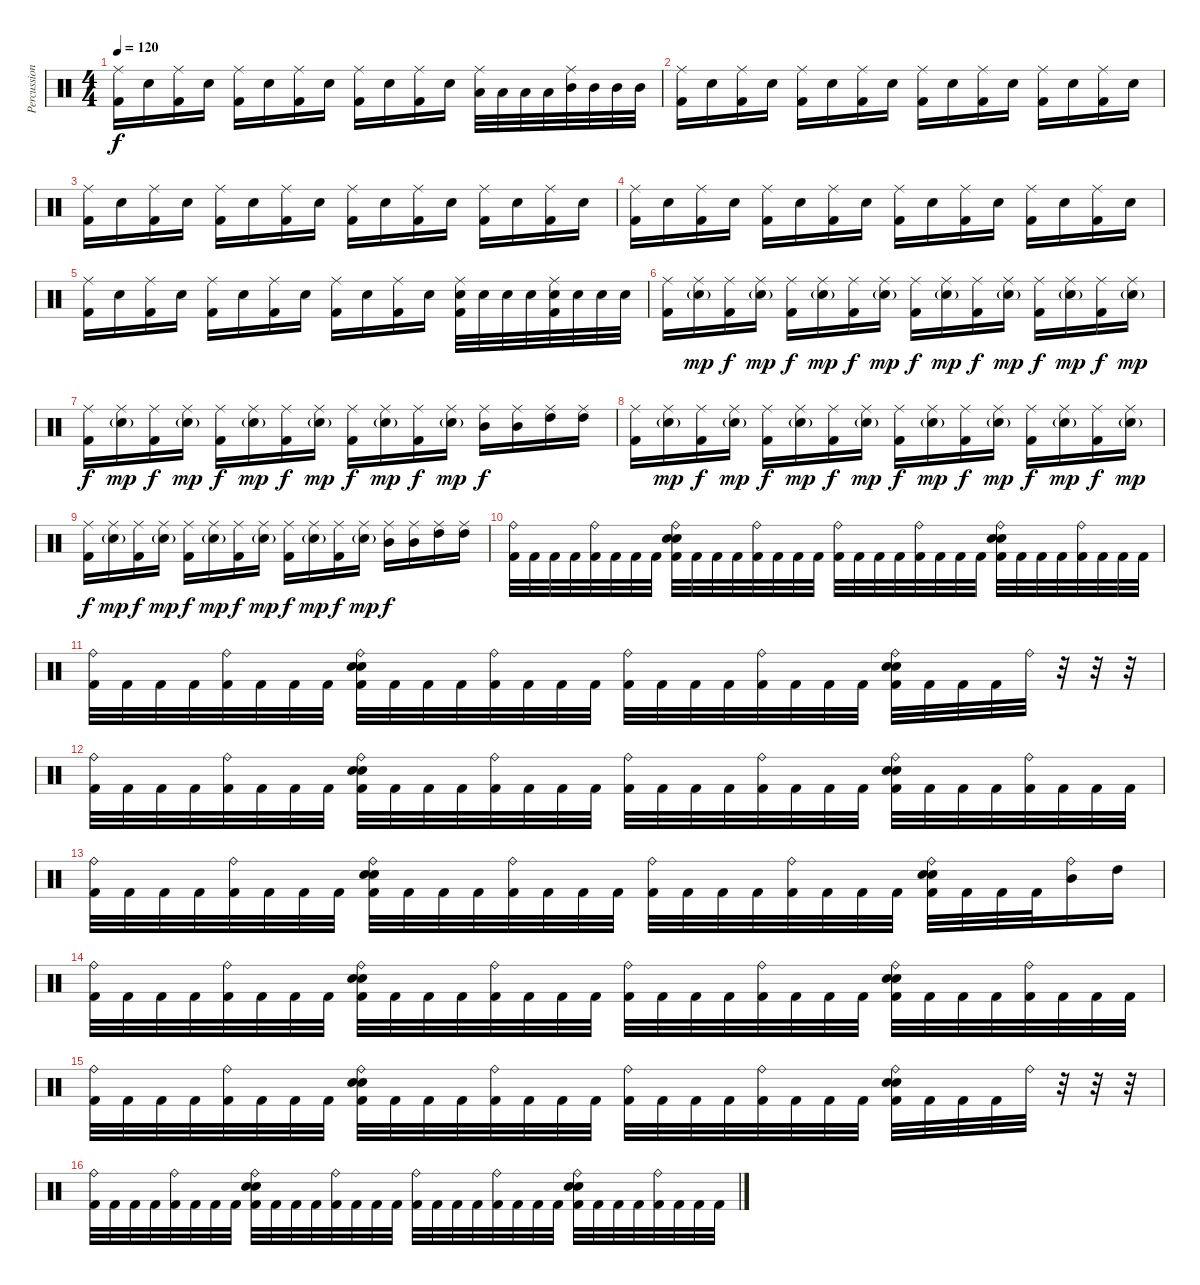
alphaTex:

\track ("Percussion" "Percussion") {instrument percussion}
\staff {score}
\articulation defaults
\ts (4 4)
\tempo 120
\clef neutral
\ks c
("Ride (middle)" "Kick (hit) 2").16{dy f} "Snare (hit) 2".16 ("Ride (middle)" "Kick (hit) 2").16 "Snare (hit) 2".16 ("Ride (middle)" "Kick (hit) 2").16 "Snare (hit) 2".16 ("Ride (middle)" "Kick (hit) 2").16 "Snare (hit) 2".16 ("Ride (middle)" "Kick (hit) 2").16 "Snare (hit) 2".16 ("Ride (middle)" "Kick (hit) 2").16 "Snare (hit) 2".16 ("Ride (middle)" "Low Tom (hit)").32 "Low Tom (hit)".32 "Low Tom (hit)".32 "Low Tom (hit)".32 ("Ride (middle)" "Mid Tom (hit)").32 "Mid Tom (hit)".32 "Mid Tom (hit)".32 "Mid Tom (hit)".32 |
("Ride (middle)" "Kick (hit) 2").16 "Snare (hit) 2".16 ("Ride (middle)" "Kick (hit) 2").16 "Snare (hit) 2".16 ("Ride (middle)" "Kick (hit) 2").16 "Snare (hit) 2".16 ("Ride (middle)" "Kick (hit) 2").16 "Snare (hit) 2".16 ("Ride (middle)" "Kick (hit) 2").16 "Snare (hit) 2".16 ("Ride (middle)" "Kick (hit) 2").16 "Snare (hit) 2".16 ("Ride (middle)" "Kick (hit) 2").16 "Snare (hit) 2".16 ("Ride (middle)" "Kick (hit) 2").16 "Snare (hit) 2".16 |
("Ride (middle)" "Kick (hit) 2").16 "Snare (hit) 2".16 ("Ride (middle)" "Kick (hit) 2").16 "Snare (hit) 2".16 ("Ride (middle)" "Kick (hit) 2").16 "Snare (hit) 2".16 ("Ride (middle)" "Kick (hit) 2").16 "Snare (hit) 2".16 ("Ride (middle)" "Kick (hit) 2").16 "Snare (hit) 2".16 ("Ride (middle)" "Kick (hit) 2").16 "Snare (hit) 2".16 ("Ride (middle)" "Kick (hit) 2").16 "Snare (hit) 2".16 ("Ride (middle)" "Kick (hit) 2").16 "Snare (hit) 2".16 |
("Ride (middle)" "Kick (hit) 2").16 "Snare (hit) 2".16 ("Ride (middle)" "Kick (hit) 2").16 "Snare (hit) 2".16 ("Ride (middle)" "Kick (hit) 2").16 "Snare (hit) 2".16 ("Ride (middle)" "Kick (hit) 2").16 "Snare (hit) 2".16 ("Ride (middle)" "Kick (hit) 2").16 "Snare (hit) 2".16 ("Ride (middle)" "Kick (hit) 2").16 "Snare (hit) 2".16 ("Ride (middle)" "Kick (hit) 2").16 "Snare (hit) 2".16 ("Ride (middle)" "Kick (hit) 2").16 "Snare (hit) 2".16 |
("Ride (middle)" "Kick (hit) 2").16 "Snare (hit) 2".16 ("Ride (middle)" "Kick (hit) 2").16 "Snare (hit) 2".16 ("Ride (middle)" "Kick (hit) 2").16 "Snare (hit) 2".16 ("Ride (middle)" "Kick (hit) 2").16 "Snare (hit) 2".16 ("Ride (middle)" "Kick (hit) 2").16 "Snare (hit) 2".16 ("Ride (middle)" "Kick (hit) 2").16 "Snare (hit) 2".16 ("Ride (middle)" "Snare (hit) 2" "Kick (hit) 2").32 "Snare (hit) 2".32 "Snare (hit) 2".32 "Snare (hit) 2".32 ("Ride (middle)" "Snare (hit) 2" "Kick (hit) 2").32 "Snare (hit) 2".32 "Snare (hit) 2".32 "Snare (hit) 2".32 |
("Ride (middle)" "Kick (hit) 2").16 ("Ride (middle)" "Snare (hit) 2"{g}).16{dy mp} ("Ride (middle)" "Kick (hit) 2").16{dy f} ("Ride (middle)" "Snare (hit) 2"{g}).16{dy mp} ("Ride (middle)" "Kick (hit) 2").16{dy f} ("Ride (middle)" "Snare (hit) 2"{g}).16{dy mp} ("Ride (middle)" "Kick (hit) 2").16{dy f} ("Ride (middle)" "Snare (hit) 2"{g}).16{dy mp} ("Ride (middle)" "Kick (hit) 2").16{dy f} ("Ride (middle)" "Snare (hit) 2"{g}).16{dy mp} ("Ride (middle)" "Kick (hit) 2").16{dy f} ("Ride (middle)" "Snare (hit) 2"{g}).16{dy mp} ("Ride (middle)" "Kick (hit) 2").16{dy f} ("Ride (middle)" "Snare (hit) 2"{g}).16{dy mp} ("Ride (middle)" "Kick (hit) 2").16{dy f} ("Ride (middle)" "Snare (hit) 2"{g}).16{dy mp} |
("Ride (middle)" "Kick (hit) 2").16{dy f} ("Ride (middle)" "Snare (hit) 2"{g}).16{dy mp} ("Ride (middle)" "Kick (hit) 2").16{dy f} ("Ride (middle)" "Snare (hit) 2"{g}).16{dy mp} ("Ride (middle)" "Kick (hit) 2").16{dy f} ("Ride (middle)" "Snare (hit) 2"{g}).16{dy mp} ("Ride (middle)" "Kick (hit) 2").16{dy f} ("Ride (middle)" "Snare (hit) 2"{g}).16{dy mp} ("Ride (middle)" "Kick (hit) 2").16{dy f} ("Ride (middle)" "Snare (hit) 2"{g}).16{dy mp} ("Ride (middle)" "Kick (hit) 2").16{dy f} ("Ride (middle)" "Snare (hit) 2"{g}).16{dy mp} ("Ride (middle)" "Mid Tom (hit)").16{dy f} ("Ride (middle)" "Mid Tom (hit)").16 ("Ride (middle)" "High Tom (hit)").16 ("Ride (middle)" "High Tom (hit)").16 |
("Ride (middle)" "Kick (hit) 2").16 ("Ride (middle)" "Snare (hit) 2"{g}).16{dy mp} ("Ride (middle)" "Kick (hit) 2").16{dy f} ("Ride (middle)" "Snare (hit) 2"{g}).16{dy mp} ("Ride (middle)" "Kick (hit) 2").16{dy f} ("Ride (middle)" "Snare (hit) 2"{g}).16{dy mp} ("Ride (middle)" "Kick (hit) 2").16{dy f} ("Ride (middle)" "Snare (hit) 2"{g}).16{dy mp} ("Ride (middle)" "Kick (hit) 2").16{dy f} ("Ride (middle)" "Snare (hit) 2"{g}).16{dy mp} ("Ride (middle)" "Kick (hit) 2").16{dy f} ("Ride (middle)" "Snare (hit) 2"{g}).16{dy mp} ("Ride (middle)" "Kick (hit) 2").16{dy f} ("Ride (middle)" "Snare (hit) 2"{g}).16{dy mp} ("Ride (middle)" "Kick (hit) 2").16{dy f} ("Ride (middle)" "Snare (hit) 2"{g}).16{dy mp} |
("Ride (middle)" "Kick (hit) 2").16{dy f} ("Ride (middle)" "Snare (hit) 2"{g}).16{dy mp} ("Ride (middle)" "Kick (hit) 2").16{dy f} ("Ride (middle)" "Snare (hit) 2"{g}).16{dy mp} ("Ride (middle)" "Kick (hit) 2").16{dy f} ("Ride (middle)" "Snare (hit) 2"{g}).16{dy mp} ("Ride (middle)" "Kick (hit) 2").16{dy f} ("Ride (middle)" "Snare (hit) 2"{g}).16{dy mp} ("Ride (middle)" "Kick (hit) 2").16{dy f} ("Ride (middle)" "Snare (hit) 2"{g}).16{dy mp} ("Ride (middle)" "Kick (hit) 2").16{dy f} ("Ride (middle)" "Snare (hit) 2"{g}).16{dy mp} ("Ride (middle)" "Mid Tom (hit)").16{dy f} ("Ride (middle)" "Mid Tom (hit)").16 ("Ride (middle)" "High Tom (hit)").16 ("Ride (middle)" "High Tom (hit)").16 |
("Ride (bell)" "Kick (hit) 2").32 "Kick (hit) 2".32 "Kick (hit) 2".32 "Kick (hit) 2".32 ("Ride (bell)" "Kick (hit) 2").32 "Kick (hit) 2".32 "Kick (hit) 2".32 "Kick (hit) 2".32 ("Ride (bell)" "Electric Snare (hit)" "Snare (hit) 2" "Kick (hit) 2").32 "Kick (hit) 2".32 "Kick (hit) 2".32 "Kick (hit) 2".32 ("Ride (bell)" "Kick (hit) 2").32 "Kick (hit) 2".32 "Kick (hit) 2".32 "Kick (hit) 2".32 ("Ride (bell)" "Kick (hit) 2").32 "Kick (hit) 2".32 "Kick (hit) 2".32 "Kick (hit) 2".32 ("Ride (bell)" "Kick (hit) 2").32 "Kick (hit) 2".32 "Kick (hit) 2".32 "Kick (hit) 2".32 ("Ride (bell)" "Electric Snare (hit)" "Snare (hit) 2" "Kick (hit) 2").32 "Kick (hit) 2".32 "Kick (hit) 2".32 "Kick (hit) 2".32 ("Ride (bell)" "Kick (hit) 2").32 "Kick (hit) 2".32 "Kick (hit) 2".32 "Kick (hit) 2".32 |
("Ride (bell)" "Kick (hit) 2").32 "Kick (hit) 2".32 "Kick (hit) 2".32 "Kick (hit) 2".32 ("Ride (bell)" "Kick (hit) 2").32 "Kick (hit) 2".32 "Kick (hit) 2".32 "Kick (hit) 2".32 ("Ride (bell)" "Electric Snare (hit)" "Snare (hit) 2" "Kick (hit) 2").32 "Kick (hit) 2".32 "Kick (hit) 2".32 "Kick (hit) 2".32 ("Ride (bell)" "Kick (hit) 2").32 "Kick (hit) 2".32 "Kick (hit) 2".32 "Kick (hit) 2".32 ("Ride (bell)" "Kick (hit) 2").32 "Kick (hit) 2".32 "Kick (hit) 2".32 "Kick (hit) 2".32 ("Ride (bell)" "Kick (hit) 2").32 "Kick (hit) 2".32 "Kick (hit) 2".32 "Kick (hit) 2".32 ("Ride (bell)" "Electric Snare (hit)" "Snare (hit) 2" "Kick (hit) 2").32 "Kick (hit) 2".32 "Kick (hit) 2".32 "Kick (hit) 2".32 "Ride (bell)".32 r.32 r.32 r.32 |
("Ride (bell)" "Kick (hit) 2").32 "Kick (hit) 2".32 "Kick (hit) 2".32 "Kick (hit) 2".32 ("Ride (bell)" "Kick (hit) 2").32 "Kick (hit) 2".32 "Kick (hit) 2".32 "Kick (hit) 2".32 ("Ride (bell)" "Electric Snare (hit)" "Snare (hit) 2" "Kick (hit) 2").32 "Kick (hit) 2".32 "Kick (hit) 2".32 "Kick (hit) 2".32 ("Ride (bell)" "Kick (hit) 2").32 "Kick (hit) 2".32 "Kick (hit) 2".32 "Kick (hit) 2".32 ("Ride (bell)" "Kick (hit) 2").32 "Kick (hit) 2".32 "Kick (hit) 2".32 "Kick (hit) 2".32 ("Ride (bell)" "Kick (hit) 2").32 "Kick (hit) 2".32 "Kick (hit) 2".32 "Kick (hit) 2".32 ("Ride (bell)" "Electric Snare (hit)" "Snare (hit) 2" "Kick (hit) 2").32 "Kick (hit) 2".32 "Kick (hit) 2".32 "Kick (hit) 2".32 ("Ride (bell)" "Kick (hit) 2").32 "Kick (hit) 2".32 "Kick (hit) 2".32 "Kick (hit) 2".32 |
("Ride (bell)" "Kick (hit) 2").32 "Kick (hit) 2".32 "Kick (hit) 2".32 "Kick (hit) 2".32 ("Ride (bell)" "Kick (hit) 2").32 "Kick (hit) 2".32 "Kick (hit) 2".32 "Kick (hit) 2".32 ("Ride (bell)" "Electric Snare (hit)" "Snare (hit) 2" "Kick (hit) 2").32 "Kick (hit) 2".32 "Kick (hit) 2".32 "Kick (hit) 2".32 ("Ride (bell)" "Kick (hit) 2").32 "Kick (hit) 2".32 "Kick (hit) 2".32 "Kick (hit) 2".32 ("Ride (bell)" "Kick (hit) 2").32 "Kick (hit) 2".32 "Kick (hit) 2".32 "Kick (hit) 2".32 ("Ride (bell)" "Kick (hit) 2").32 "Kick (hit) 2".32 "Kick (hit) 2".32 "Kick (hit) 2".32 ("Ride (bell)" "Electric Snare (hit)" "Snare (hit) 2" "Kick (hit) 2").32 "Kick (hit) 2".32 "Kick (hit) 2".32 "Kick (hit) 2".32 ("Ride (bell)" "Mid Tom (hit)").16 "High Tom (hit)".16 |
("Ride (bell)" "Kick (hit) 2").32 "Kick (hit) 2".32 "Kick (hit) 2".32 "Kick (hit) 2".32 ("Ride (bell)" "Kick (hit) 2").32 "Kick (hit) 2".32 "Kick (hit) 2".32 "Kick (hit) 2".32 ("Ride (bell)" "Electric Snare (hit)" "Snare (hit) 2" "Kick (hit) 2").32 "Kick (hit) 2".32 "Kick (hit) 2".32 "Kick (hit) 2".32 ("Ride (bell)" "Kick (hit) 2").32 "Kick (hit) 2".32 "Kick (hit) 2".32 "Kick (hit) 2".32 ("Ride (bell)" "Kick (hit) 2").32 "Kick (hit) 2".32 "Kick (hit) 2".32 "Kick (hit) 2".32 ("Ride (bell)" "Kick (hit) 2").32 "Kick (hit) 2".32 "Kick (hit) 2".32 "Kick (hit) 2".32 ("Ride (bell)" "Electric Snare (hit)" "Snare (hit) 2" "Kick (hit) 2").32 "Kick (hit) 2".32 "Kick (hit) 2".32 "Kick (hit) 2".32 ("Ride (bell)" "Kick (hit) 2").32 "Kick (hit) 2".32 "Kick (hit) 2".32 "Kick (hit) 2".32 |
("Ride (bell)" "Kick (hit) 2").32 "Kick (hit) 2".32 "Kick (hit) 2".32 "Kick (hit) 2".32 ("Ride (bell)" "Kick (hit) 2").32 "Kick (hit) 2".32 "Kick (hit) 2".32 "Kick (hit) 2".32 ("Ride (bell)" "Electric Snare (hit)" "Snare (hit) 2" "Kick (hit) 2").32 "Kick (hit) 2".32 "Kick (hit) 2".32 "Kick (hit) 2".32 ("Ride (bell)" "Kick (hit) 2").32 "Kick (hit) 2".32 "Kick (hit) 2".32 "Kick (hit) 2".32 ("Ride (bell)" "Kick (hit) 2").32 "Kick (hit) 2".32 "Kick (hit) 2".32 "Kick (hit) 2".32 ("Ride (bell)" "Kick (hit) 2").32 "Kick (hit) 2".32 "Kick (hit) 2".32 "Kick (hit) 2".32 ("Ride (bell)" "Electric Snare (hit)" "Snare (hit) 2" "Kick (hit) 2").32 "Kick (hit) 2".32 "Kick (hit) 2".32 "Kick (hit) 2".32 "Ride (bell)".32 r.32 r.32 r.32 |
("Ride (bell)" "Kick (hit) 2").32 "Kick (hit) 2".32 "Kick (hit) 2".32 "Kick (hit) 2".32 ("Ride (bell)" "Kick (hit) 2").32 "Kick (hit) 2".32 "Kick (hit) 2".32 "Kick (hit) 2".32 ("Ride (bell)" "Electric Snare (hit)" "Snare (hit) 2" "Kick (hit) 2").32 "Kick (hit) 2".32 "Kick (hit) 2".32 "Kick (hit) 2".32 ("Ride (bell)" "Kick (hit) 2").32 "Kick (hit) 2".32 "Kick (hit) 2".32 "Kick (hit) 2".32 ("Ride (bell)" "Kick (hit) 2").32 "Kick (hit) 2".32 "Kick (hit) 2".32 "Kick (hit) 2".32 ("Ride (bell)" "Kick (hit) 2").32 "Kick (hit) 2".32 "Kick (hit) 2".32 "Kick (hit) 2".32 ("Ride (bell)" "Electric Snare (hit)" "Snare (hit) 2" "Kick (hit) 2").32 "Kick (hit) 2".32 "Kick (hit) 2".32 "Kick (hit) 2".32 ("Ride (bell)" "Kick (hit) 2").32 "Kick (hit) 2".32 "Kick (hit) 2".32 "Kick (hit) 2".32
